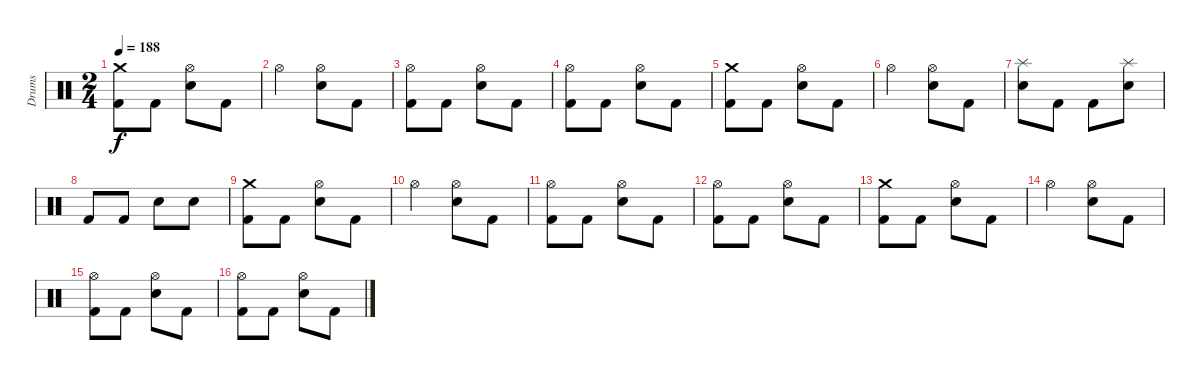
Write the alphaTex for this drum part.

\track ("Drums" "Drums") {instrument percussion}
\staff {score}
\articulation defaults
\ts (2 4)
\tempo 188
\clef neutral
\ks c
("Crash medium (hit)" "Kick (hit) 2").8{dy f} "Kick (hit) 2".8 ("Electric Snare (hit)" "Hi-Hat (open)").8 "Kick (hit) 2".8 |
"Hi-Hat (open)".4 ("Electric Snare (hit)" "Hi-Hat (open)").8 "Kick (hit) 2".8 |
("Hi-Hat (open)" "Kick (hit) 2").8 "Kick (hit) 2".8 ("Electric Snare (hit)" "Hi-Hat (open)").8 "Kick (hit) 2".8 |
("Hi-Hat (open)" "Kick (hit) 2").8 "Kick (hit) 2".8 ("Electric Snare (hit)" "Hi-Hat (open)").8 "Kick (hit) 2".8 |
("Crash medium (hit)" "Kick (hit) 2").8 "Kick (hit) 2".8 ("Electric Snare (hit)" "Hi-Hat (open)").8 "Kick (hit) 2".8 |
"Hi-Hat (open)".4 ("Electric Snare (hit)" "Hi-Hat (open)").8 "Kick (hit) 2".8 |
("Electric Snare (hit)" "Splash (hit)").8 "Kick (hit) 2".8 "Kick (hit) 2".8 ("Electric Snare (hit)" "Splash (hit)").8 |
"Kick (hit) 2".8 "Kick (hit) 2".8 "Electric Snare (hit)".8 "Electric Snare (hit)".8 |
("Crash medium (hit)" "Kick (hit) 2").8 "Kick (hit) 2".8 ("Electric Snare (hit)" "Hi-Hat (open)").8 "Kick (hit) 2".8 |
"Hi-Hat (open)".4 ("Electric Snare (hit)" "Hi-Hat (open)").8 "Kick (hit) 2".8 |
("Hi-Hat (open)" "Kick (hit) 2").8 "Kick (hit) 2".8 ("Electric Snare (hit)" "Hi-Hat (open)").8 "Kick (hit) 2".8 |
("Hi-Hat (open)" "Kick (hit) 2").8 "Kick (hit) 2".8 ("Electric Snare (hit)" "Hi-Hat (open)").8 "Kick (hit) 2".8 |
("Crash medium (hit)" "Kick (hit) 2").8 "Kick (hit) 2".8 ("Electric Snare (hit)" "Hi-Hat (open)").8 "Kick (hit) 2".8 |
"Hi-Hat (open)".4 ("Electric Snare (hit)" "Hi-Hat (open)").8 "Kick (hit) 2".8 |
("Hi-Hat (open)" "Kick (hit) 2").8 "Kick (hit) 2".8 ("Electric Snare (hit)" "Hi-Hat (open)").8 "Kick (hit) 2".8 |
("Hi-Hat (open)" "Kick (hit) 2").8 "Kick (hit) 2".8 ("Electric Snare (hit)" "Hi-Hat (open)").8 "Kick (hit) 2".8
